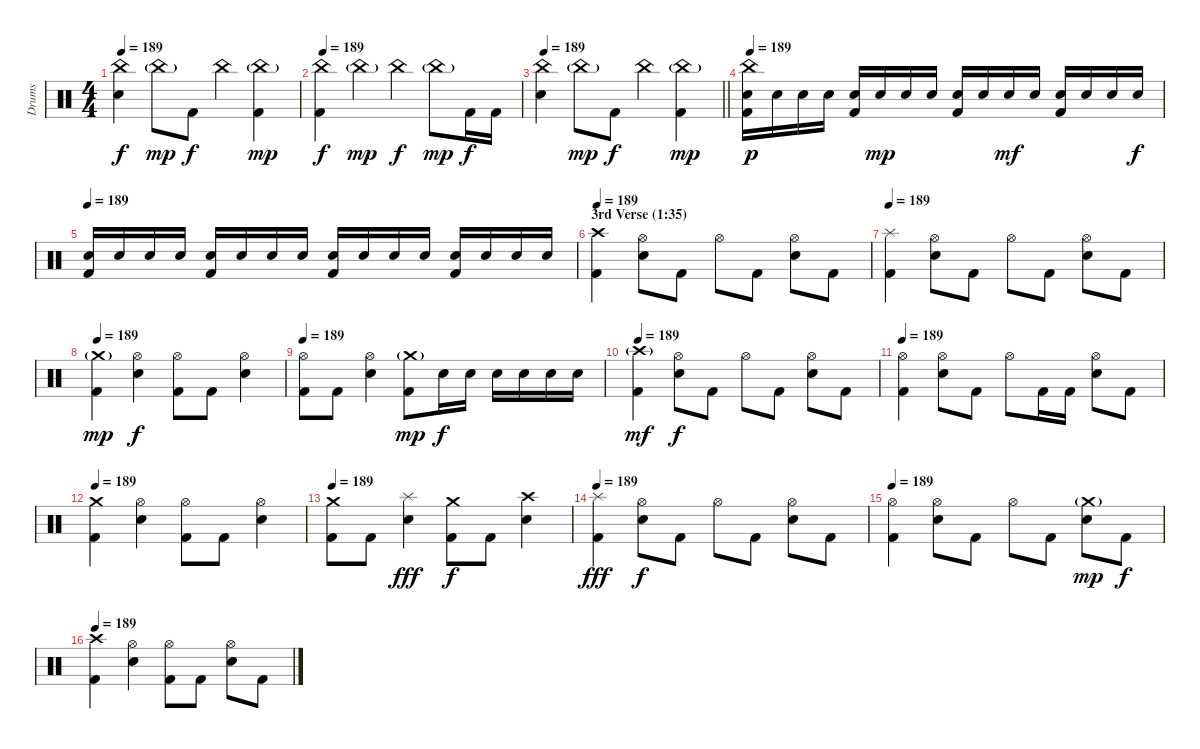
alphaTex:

\track ("Drums" "Drums") {instrument percussion}
\staff {score}
\articulation defaults
\ts (4 4)
\tempo 189
\clef neutral
\ks c
("China (hit)" "Snare (hit) 2").4{dy f} "China (hit)"{g}.8{dy mp} "Kick (hit) 2".8{dy f} "China (hit)".4 ("China (hit)"{g} "Kick (hit) 2").4{dy mp} |
\tempo 189
("China (hit)" "Kick (hit) 2").4{dy f} "China (hit)"{g}.4{dy mp} "China (hit)".4{dy f} "China (hit)"{g}.8{dy mp} "Kick (hit) 2".16{dy f} "Kick (hit) 2".16 |
\tempo 189
\barLineRight lightlight
("China (hit)" "Snare (hit) 2").4 "China (hit)"{g}.8{dy mp} "Kick (hit) 2".8{dy f} "China (hit)".4 ("China (hit)"{g} "Kick (hit) 2").4{dy mp} |
\tempo 189
("China (hit)" "Snare (hit) 2" "Kick (hit) 2").16{dy p} "Snare (hit) 2".16 "Snare (hit) 2".16 "Snare (hit) 2".16 ("Snare (hit) 2" "Kick (hit) 2").16 "Snare (hit) 2".16{dy mp} "Snare (hit) 2".16 "Snare (hit) 2".16 ("Snare (hit) 2" "Kick (hit) 2").16 "Snare (hit) 2".16 "Snare (hit) 2".16{dy mf} "Snare (hit) 2".16 ("Snare (hit) 2" "Kick (hit) 2").16 "Snare (hit) 2".16 "Snare (hit) 2".16 "Snare (hit) 2".16{dy f} |
\tempo 189
("Snare (hit) 2" "Kick (hit) 2").16 "Snare (hit) 2".16 "Snare (hit) 2".16 "Snare (hit) 2".16 ("Snare (hit) 2" "Kick (hit) 2").16 "Snare (hit) 2".16 "Snare (hit) 2".16 "Snare (hit) 2".16 ("Snare (hit) 2" "Kick (hit) 2").16 "Snare (hit) 2".16 "Snare (hit) 2".16 "Snare (hit) 2".16 ("Snare (hit) 2" "Kick (hit) 2").16 "Snare (hit) 2".16 "Snare (hit) 2".16 "Snare (hit) 2".16 |
\section ("" "3rd Verse (1:35)")
\tempo 189
("Crash high (hit)" "Kick (hit) 2").4 ("Hi-Hat (open)" "Snare (hit) 2").8 "Kick (hit) 2".8 "Hi-Hat (open)".8 "Kick (hit) 2".8 ("Hi-Hat (open)" "Snare (hit) 2").8 "Kick (hit) 2".8 |
\tempo 189
("Splash (hit)" "Kick (hit) 2").4 ("Hi-Hat (open)" "Snare (hit) 2").8 "Kick (hit) 2".8 "Hi-Hat (open)".8 "Kick (hit) 2".8 ("Hi-Hat (open)" "Snare (hit) 2").8 "Kick (hit) 2".8 |
\tempo 189
("Crash medium (hit)"{g} "Kick (hit) 2").4{dy mp} ("Hi-Hat (open)" "Snare (hit) 2").4{dy f} ("Hi-Hat (open)" "Kick (hit) 2").8 "Kick (hit) 2".8 ("Hi-Hat (open)" "Snare (hit) 2").4 |
\tempo 189
("Hi-Hat (open)" "Kick (hit) 2").8 "Kick (hit) 2".8 ("Hi-Hat (open)" "Snare (hit) 2").4 ("Crash medium (hit)"{g} "Kick (hit) 2").8{dy mp} "Snare (hit) 2".16{dy f} "Snare (hit) 2".16 "Snare (hit) 2".16 "Snare (hit) 2".16 "Snare (hit) 2".16 "Snare (hit) 2".16 |
\tempo 189
("Crash high (hit)"{g} "Kick (hit) 2").4{dy mf} ("Hi-Hat (open)" "Snare (hit) 2").8{dy f} "Kick (hit) 2".8 "Hi-Hat (open)".8 "Kick (hit) 2".8 ("Hi-Hat (open)" "Snare (hit) 2").8 "Kick (hit) 2".8 |
\tempo 189
("Hi-Hat (open)" "Kick (hit) 2").4 ("Hi-Hat (open)" "Snare (hit) 2").8 "Kick (hit) 2".8 "Hi-Hat (open)".8 "Kick (hit) 2".16 "Kick (hit) 2".16 ("Hi-Hat (open)" "Snare (hit) 2").8 "Kick (hit) 2".8 |
\tempo 189
("Crash medium (hit)" "Kick (hit) 2").4 ("Hi-Hat (open)" "Snare (hit) 2").4 ("Hi-Hat (open)" "Kick (hit) 2").8 "Kick (hit) 2".8 ("Hi-Hat (open)" "Snare (hit) 2").4 |
\tempo 189
("Crash medium (hit)" "Kick (hit) 2").8 "Kick (hit) 2".8 ("Splash (hit)" "Snare (hit) 2").4{dy fff} ("Crash medium (hit)" "Kick (hit) 2").8{dy f} "Kick (hit) 2".8 ("Crash high (hit)" "Snare (hit) 2").4 |
\tempo 189
("Splash (hit)" "Kick (hit) 2").4{dy fff} ("Hi-Hat (open)" "Snare (hit) 2").8{dy f} "Kick (hit) 2".8 "Hi-Hat (open)".8 "Kick (hit) 2".8 ("Hi-Hat (open)" "Snare (hit) 2").8 "Kick (hit) 2".8 |
\tempo 189
("Hi-Hat (open)" "Kick (hit) 2").4 ("Hi-Hat (open)" "Snare (hit) 2").8 "Kick (hit) 2".8 "Hi-Hat (open)".8 "Kick (hit) 2".8 ("Crash medium (hit)"{g} "Snare (hit) 2").8{dy mp} "Kick (hit) 2".8{dy f} |
\tempo 189
("Crash high (hit)" "Kick (hit) 2").4 ("Hi-Hat (open)" "Snare (hit) 2").4 ("Hi-Hat (open)" "Kick (hit) 2").8 "Kick (hit) 2".8 ("Hi-Hat (open)" "Snare (hit) 2").8 "Kick (hit) 2".8
